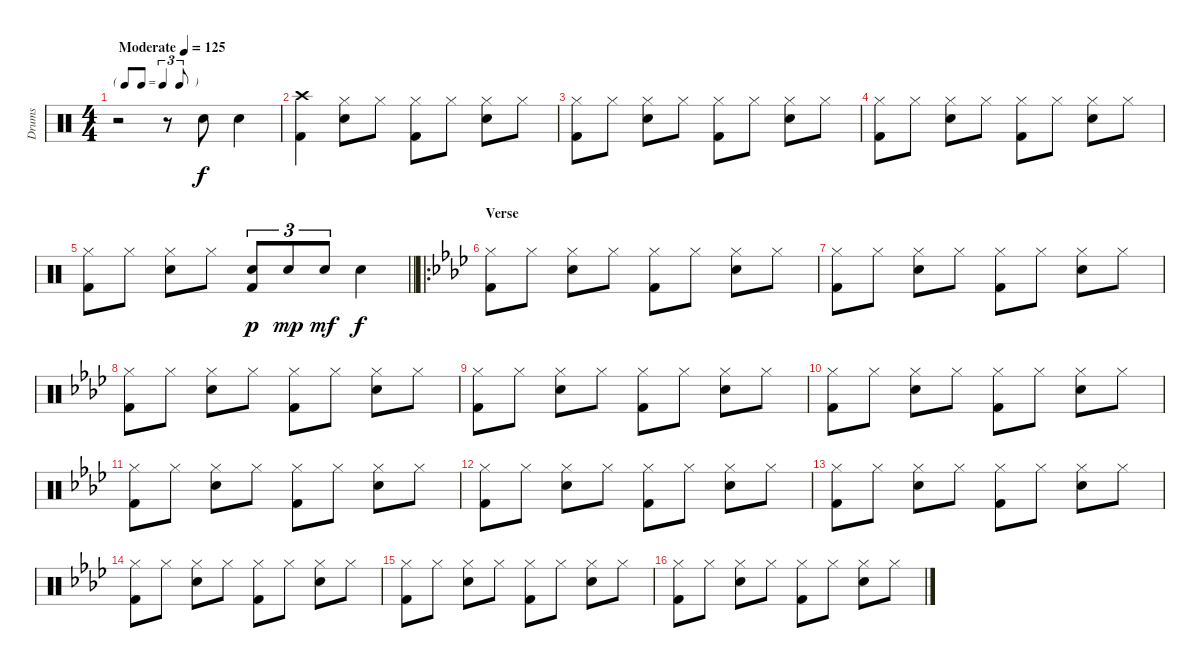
\track ("Drums" "Drums") {instrument percussion}
\staff {score}
\articulation defaults
\ts (4 4)
\tf triplet8th
\tempo (125 "Moderate")
\clef neutral
\ks c
r.2{dy f} r.8 "Electric Snare (hit)".8 "Electric Snare (hit)".4 |
("Crash high (hit)" "Kick (hit) 2").4 ("Hi-Hat (closed)" "Electric Snare (hit)").8 "Hi-Hat (closed)".8 ("Hi-Hat (closed)" "Kick (hit) 2").8 "Hi-Hat (closed)".8 ("Hi-Hat (closed)" "Electric Snare (hit)").8 "Hi-Hat (closed)".8 |
("Hi-Hat (closed)" "Kick (hit) 2").8 "Hi-Hat (closed)".8 ("Hi-Hat (closed)" "Electric Snare (hit)").8 "Hi-Hat (closed)".8 ("Hi-Hat (closed)" "Kick (hit) 2").8 "Hi-Hat (closed)".8 ("Hi-Hat (closed)" "Electric Snare (hit)").8 "Hi-Hat (closed)".8 |
("Hi-Hat (closed)" "Kick (hit) 2").8 "Hi-Hat (closed)".8 ("Hi-Hat (closed)" "Electric Snare (hit)").8 "Hi-Hat (closed)".8 ("Hi-Hat (closed)" "Kick (hit) 2").8 "Hi-Hat (closed)".8 ("Hi-Hat (closed)" "Electric Snare (hit)").8 "Hi-Hat (closed)".8 |
\barLineRight lightlight
("Hi-Hat (closed)" "Kick (hit) 2").8 "Hi-Hat (closed)".8 ("Hi-Hat (closed)" "Electric Snare (hit)").8 "Hi-Hat (closed)".8 ("Electric Snare (hit)" "Kick (hit) 2").8{tu (3 2) dy p} "Electric Snare (hit)".8{tu (3 2) dy mp} "Electric Snare (hit)".8{tu (3 2) dy mf} "Electric Snare (hit)".4{dy f} |
\ro
\section ("" "Verse")
\ks ab
("Hi-Hat (closed)" "Kick (hit) 2").8 "Hi-Hat (closed)".8 ("Hi-Hat (closed)" "Electric Snare (hit)").8 "Hi-Hat (closed)".8 ("Hi-Hat (closed)" "Kick (hit) 2").8 "Hi-Hat (closed)".8 ("Hi-Hat (closed)" "Electric Snare (hit)").8 "Hi-Hat (closed)".8 |
("Hi-Hat (closed)" "Kick (hit) 2").8 "Hi-Hat (closed)".8 ("Hi-Hat (closed)" "Electric Snare (hit)").8 "Hi-Hat (closed)".8 ("Hi-Hat (closed)" "Kick (hit) 2").8 "Hi-Hat (closed)".8 ("Hi-Hat (closed)" "Electric Snare (hit)").8 "Hi-Hat (closed)".8 |
("Hi-Hat (closed)" "Kick (hit) 2").8 "Hi-Hat (closed)".8 ("Hi-Hat (closed)" "Electric Snare (hit)").8 "Hi-Hat (closed)".8 ("Hi-Hat (closed)" "Kick (hit) 2").8 "Hi-Hat (closed)".8 ("Hi-Hat (closed)" "Electric Snare (hit)").8 "Hi-Hat (closed)".8 |
("Hi-Hat (closed)" "Kick (hit) 2").8 "Hi-Hat (closed)".8 ("Hi-Hat (closed)" "Electric Snare (hit)").8 "Hi-Hat (closed)".8 ("Hi-Hat (closed)" "Kick (hit) 2").8 "Hi-Hat (closed)".8 ("Hi-Hat (closed)" "Electric Snare (hit)").8 "Hi-Hat (closed)".8 |
("Hi-Hat (closed)" "Kick (hit) 2").8 "Hi-Hat (closed)".8 ("Hi-Hat (closed)" "Electric Snare (hit)").8 "Hi-Hat (closed)".8 ("Hi-Hat (closed)" "Kick (hit) 2").8 "Hi-Hat (closed)".8 ("Hi-Hat (closed)" "Electric Snare (hit)").8 "Hi-Hat (closed)".8 |
("Hi-Hat (closed)" "Kick (hit) 2").8 "Hi-Hat (closed)".8 ("Hi-Hat (closed)" "Electric Snare (hit)").8 "Hi-Hat (closed)".8 ("Hi-Hat (closed)" "Kick (hit) 2").8 "Hi-Hat (closed)".8 ("Hi-Hat (closed)" "Electric Snare (hit)").8 "Hi-Hat (closed)".8 |
("Hi-Hat (closed)" "Kick (hit) 2").8 "Hi-Hat (closed)".8 ("Hi-Hat (closed)" "Electric Snare (hit)").8 "Hi-Hat (closed)".8 ("Hi-Hat (closed)" "Kick (hit) 2").8 "Hi-Hat (closed)".8 ("Hi-Hat (closed)" "Electric Snare (hit)").8 "Hi-Hat (closed)".8 |
("Hi-Hat (closed)" "Kick (hit) 2").8 "Hi-Hat (closed)".8 ("Hi-Hat (closed)" "Electric Snare (hit)").8 "Hi-Hat (closed)".8 ("Hi-Hat (closed)" "Kick (hit) 2").8 "Hi-Hat (closed)".8 ("Hi-Hat (closed)" "Electric Snare (hit)").8 "Hi-Hat (closed)".8 |
("Hi-Hat (closed)" "Kick (hit) 2").8 "Hi-Hat (closed)".8 ("Hi-Hat (closed)" "Electric Snare (hit)").8 "Hi-Hat (closed)".8 ("Hi-Hat (closed)" "Kick (hit) 2").8 "Hi-Hat (closed)".8 ("Hi-Hat (closed)" "Electric Snare (hit)").8 "Hi-Hat (closed)".8 |
("Hi-Hat (closed)" "Kick (hit) 2").8 "Hi-Hat (closed)".8 ("Hi-Hat (closed)" "Electric Snare (hit)").8 "Hi-Hat (closed)".8 ("Hi-Hat (closed)" "Kick (hit) 2").8 "Hi-Hat (closed)".8 ("Hi-Hat (closed)" "Electric Snare (hit)").8 "Hi-Hat (closed)".8 |
("Hi-Hat (closed)" "Kick (hit) 2").8 "Hi-Hat (closed)".8 ("Hi-Hat (closed)" "Electric Snare (hit)").8 "Hi-Hat (closed)".8 ("Hi-Hat (closed)" "Kick (hit) 2").8 "Hi-Hat (closed)".8 ("Hi-Hat (closed)" "Electric Snare (hit)").8 "Hi-Hat (closed)".8
